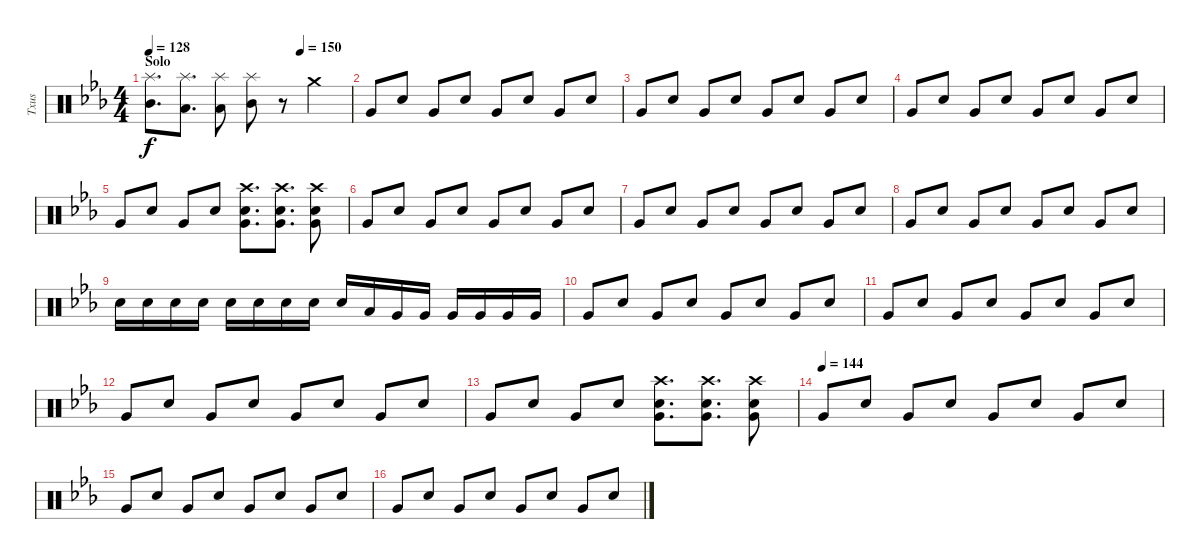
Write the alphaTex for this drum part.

\track ("Txus" "Txus") {instrument percussion}
\staff {score}
\articulation defaults
\ts (4 4)
\section ("" "Solo")
\tempo 128
\tempo (150 0.75)
\clef neutral
\ks eb
("Splash (hit)" "Mid Tom (hit)").8{d dy f} ("Splash (hit)" "Low Floor Tom (hit)").8{d} ("Splash (hit)" "Low Tom (hit)").8 ("Splash (hit)" "Mid Tom (hit)").8 r.8 "Crash medium (hit)".4 |
"Very Low Tom (hit)".8 "Electric Snare (hit)".8 "Very Low Tom (hit)".8 "Electric Snare (hit)".8 "Very Low Tom (hit)".8 "Electric Snare (hit)".8 "Very Low Tom (hit)".8 "Electric Snare (hit)".8 |
"Very Low Tom (hit)".8 "Electric Snare (hit)".8 "Very Low Tom (hit)".8 "Electric Snare (hit)".8 "Very Low Tom (hit)".8 "Electric Snare (hit)".8 "Very Low Tom (hit)".8 "Electric Snare (hit)".8 |
"Very Low Tom (hit)".8 "Electric Snare (hit)".8 "Very Low Tom (hit)".8 "Electric Snare (hit)".8 "Very Low Tom (hit)".8 "Electric Snare (hit)".8 "Very Low Tom (hit)".8 "Electric Snare (hit)".8 |
"Very Low Tom (hit)".8 "Electric Snare (hit)".8 "Very Low Tom (hit)".8 "Electric Snare (hit)".8 ("Electric Snare (hit)" "Crash high (hit)" "Very Low Tom (hit)").8{d} ("Electric Snare (hit)" "Crash high (hit)" "Very Low Tom (hit)").8{d} ("Electric Snare (hit)" "Crash high (hit)" "Very Low Tom (hit)").8 |
"Very Low Tom (hit)".8 "Electric Snare (hit)".8 "Very Low Tom (hit)".8 "Electric Snare (hit)".8 "Very Low Tom (hit)".8 "Electric Snare (hit)".8 "Very Low Tom (hit)".8 "Electric Snare (hit)".8 |
"Very Low Tom (hit)".8 "Electric Snare (hit)".8 "Very Low Tom (hit)".8 "Electric Snare (hit)".8 "Very Low Tom (hit)".8 "Electric Snare (hit)".8 "Very Low Tom (hit)".8 "Electric Snare (hit)".8 |
"Very Low Tom (hit)".8 "Electric Snare (hit)".8 "Very Low Tom (hit)".8 "Electric Snare (hit)".8 "Very Low Tom (hit)".8 "Electric Snare (hit)".8 "Very Low Tom (hit)".8 "Electric Snare (hit)".8 |
"Electric Snare (hit)".16 "Electric Snare (hit)".16 "Electric Snare (hit)".16 "Electric Snare (hit)".16 "Electric Snare (hit)".16 "Electric Snare (hit)".16 "Electric Snare (hit)".16 "Electric Snare (hit)".16 "Electric Snare (hit)".16 "Low Floor Tom (hit)".16 "Very Low Tom (hit)".16 "Very Low Tom (hit)".16 "Very Low Tom (hit)".16 "Very Low Tom (hit)".16 "Very Low Tom (hit)".16 "Very Low Tom (hit)".16 |
"Very Low Tom (hit)".8 "Electric Snare (hit)".8 "Very Low Tom (hit)".8 "Electric Snare (hit)".8 "Very Low Tom (hit)".8 "Electric Snare (hit)".8 "Very Low Tom (hit)".8 "Electric Snare (hit)".8 |
"Very Low Tom (hit)".8 "Electric Snare (hit)".8 "Very Low Tom (hit)".8 "Electric Snare (hit)".8 "Very Low Tom (hit)".8 "Electric Snare (hit)".8 "Very Low Tom (hit)".8 "Electric Snare (hit)".8 |
"Very Low Tom (hit)".8 "Electric Snare (hit)".8 "Very Low Tom (hit)".8 "Electric Snare (hit)".8 "Very Low Tom (hit)".8 "Electric Snare (hit)".8 "Very Low Tom (hit)".8 "Electric Snare (hit)".8 |
"Very Low Tom (hit)".8 "Electric Snare (hit)".8 "Very Low Tom (hit)".8 "Electric Snare (hit)".8 ("Electric Snare (hit)" "Crash high (hit)" "Very Low Tom (hit)").8{d} ("Electric Snare (hit)" "Crash high (hit)" "Very Low Tom (hit)").8{d} ("Electric Snare (hit)" "Crash high (hit)" "Very Low Tom (hit)").8 |
\tempo (144)
"Very Low Tom (hit)".8 "Electric Snare (hit)".8 "Very Low Tom (hit)".8 "Electric Snare (hit)".8 "Very Low Tom (hit)".8 "Electric Snare (hit)".8 "Very Low Tom (hit)".8 "Electric Snare (hit)".8 |
"Very Low Tom (hit)".8 "Electric Snare (hit)".8 "Very Low Tom (hit)".8 "Electric Snare (hit)".8 "Very Low Tom (hit)".8 "Electric Snare (hit)".8 "Very Low Tom (hit)".8 "Electric Snare (hit)".8 |
"Very Low Tom (hit)".8 "Electric Snare (hit)".8 "Very Low Tom (hit)".8 "Electric Snare (hit)".8 "Very Low Tom (hit)".8 "Electric Snare (hit)".8 "Very Low Tom (hit)".8 "Electric Snare (hit)".8
